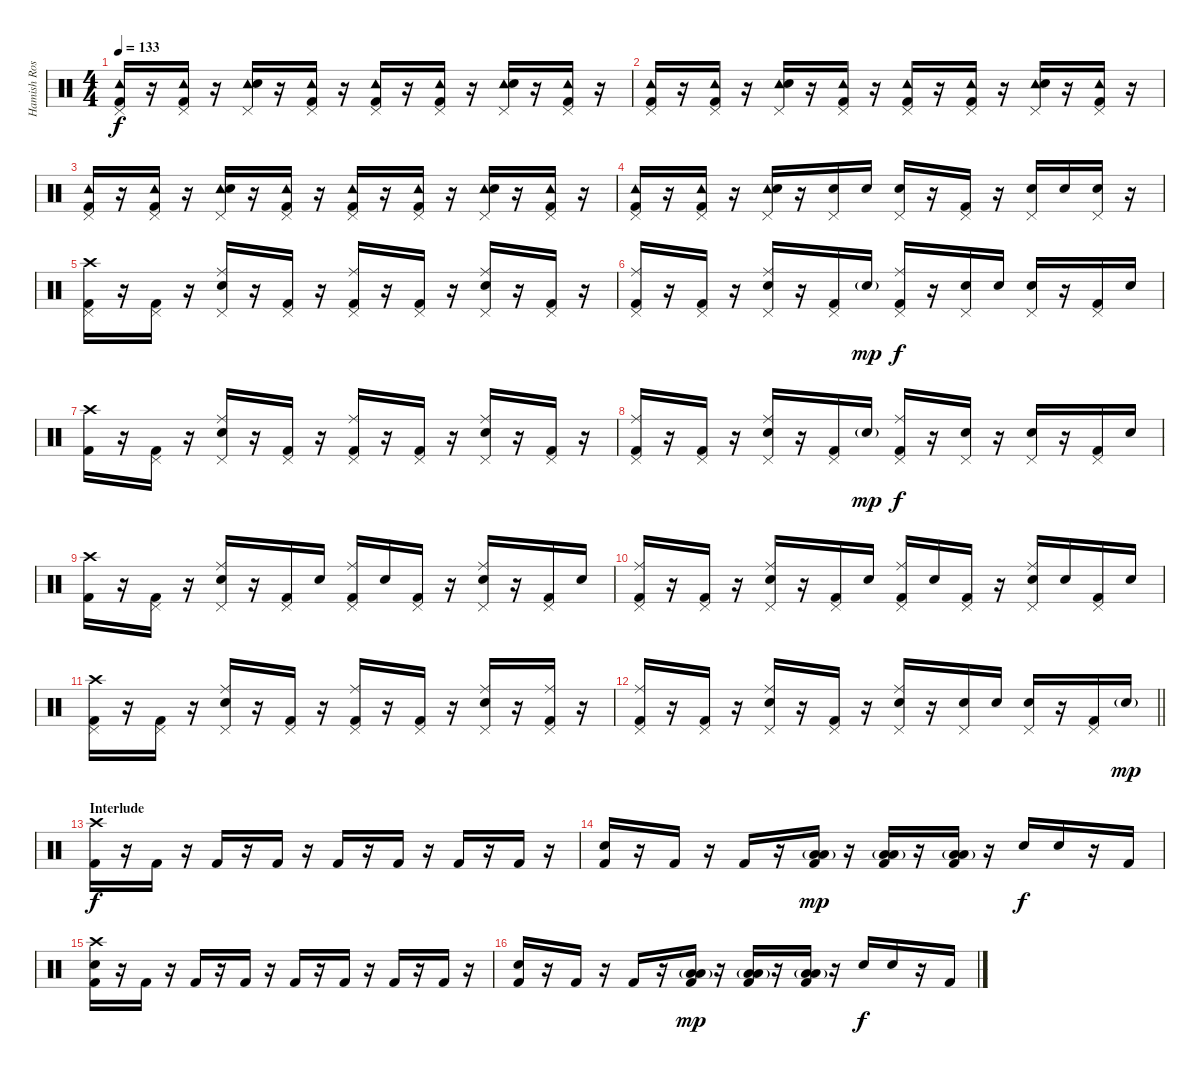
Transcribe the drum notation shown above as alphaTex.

\track ("Hamish Rosser (Main-Tune Drums Track)" "Hamish Ros") {instrument percussion}
\staff {score}
\articulation defaults
\ts (4 4)
\tempo 133
\clef neutral
\ks c
("Tambourine (hit)" "Pedal Hi-Hat (hit)" "Kick (hit) 2").16{dy f} r.16 ("Tambourine (hit)" "Pedal Hi-Hat (hit)" "Kick (hit) 2").16 r.16 ("Tambourine (hit)" "Pedal Hi-Hat (hit)" "Snare (hit) 2").16 r.16 ("Tambourine (hit)" "Pedal Hi-Hat (hit)" "Kick (hit) 2").16 r.16 ("Tambourine (hit)" "Pedal Hi-Hat (hit)" "Kick (hit) 2").16 r.16 ("Tambourine (hit)" "Pedal Hi-Hat (hit)" "Kick (hit) 2").16 r.16 ("Tambourine (hit)" "Pedal Hi-Hat (hit)" "Snare (hit) 2").16 r.16 ("Tambourine (hit)" "Pedal Hi-Hat (hit)" "Kick (hit) 2").16 r.16 |
("Tambourine (hit)" "Pedal Hi-Hat (hit)" "Kick (hit) 2").16 r.16 ("Tambourine (hit)" "Pedal Hi-Hat (hit)" "Kick (hit) 2").16 r.16 ("Tambourine (hit)" "Pedal Hi-Hat (hit)" "Snare (hit) 2").16 r.16 ("Tambourine (hit)" "Pedal Hi-Hat (hit)" "Kick (hit) 2").16 r.16 ("Tambourine (hit)" "Pedal Hi-Hat (hit)" "Kick (hit) 2").16 r.16 ("Tambourine (hit)" "Pedal Hi-Hat (hit)" "Kick (hit) 2").16 r.16 ("Tambourine (hit)" "Pedal Hi-Hat (hit)" "Snare (hit) 2").16 r.16 ("Tambourine (hit)" "Pedal Hi-Hat (hit)" "Kick (hit) 2").16 r.16 |
("Tambourine (hit)" "Pedal Hi-Hat (hit)" "Kick (hit) 2").16 r.16 ("Tambourine (hit)" "Pedal Hi-Hat (hit)" "Kick (hit) 2").16 r.16 ("Tambourine (hit)" "Pedal Hi-Hat (hit)" "Snare (hit) 2").16 r.16 ("Tambourine (hit)" "Pedal Hi-Hat (hit)" "Kick (hit) 2").16 r.16 ("Tambourine (hit)" "Pedal Hi-Hat (hit)" "Kick (hit) 2").16 r.16 ("Tambourine (hit)" "Pedal Hi-Hat (hit)" "Kick (hit) 2").16 r.16 ("Tambourine (hit)" "Pedal Hi-Hat (hit)" "Snare (hit) 2").16 r.16 ("Tambourine (hit)" "Pedal Hi-Hat (hit)" "Kick (hit) 2").16 r.16 |
("Tambourine (hit)" "Pedal Hi-Hat (hit)" "Kick (hit) 2").16 r.16 ("Tambourine (hit)" "Pedal Hi-Hat (hit)" "Kick (hit) 2").16 r.16 ("Tambourine (hit)" "Pedal Hi-Hat (hit)" "Snare (hit) 2").16 r.16 ("Pedal Hi-Hat (hit)" "Snare (hit) 2").16 "Snare (hit) 2".16 ("Pedal Hi-Hat (hit)" "Snare (hit) 2").16 r.16 ("Pedal Hi-Hat (hit)" "Kick (hit) 2").16 r.16 ("Pedal Hi-Hat (hit)" "Snare (hit) 2").16 "Snare (hit) 2".16 ("Pedal Hi-Hat (hit)" "Snare (hit) 2").16 r.16 |
("Crash high (hit)" "Pedal Hi-Hat (hit)" "Kick (hit) 2").16 r.16 ("Pedal Hi-Hat (hit)" "Kick (hit) 2").16 r.16 ("Ride (middle)" "Pedal Hi-Hat (hit)" "Snare (hit) 2").16 r.16 ("Pedal Hi-Hat (hit)" "Kick (hit) 2").16 r.16 ("Ride (middle)" "Pedal Hi-Hat (hit)" "Kick (hit) 2").16 r.16 ("Pedal Hi-Hat (hit)" "Kick (hit) 2").16 r.16 ("Ride (middle)" "Pedal Hi-Hat (hit)" "Snare (hit) 2").16 r.16 ("Pedal Hi-Hat (hit)" "Kick (hit) 2").16 r.16 |
("Ride (middle)" "Pedal Hi-Hat (hit)" "Kick (hit) 2").16 r.16 ("Pedal Hi-Hat (hit)" "Kick (hit) 2").16 r.16 ("Ride (middle)" "Pedal Hi-Hat (hit)" "Snare (hit) 2").16 r.16 ("Pedal Hi-Hat (hit)" "Kick (hit) 2").16 "Snare (hit) 2"{g}.16{dy mp} ("Ride (middle)" "Pedal Hi-Hat (hit)" "Kick (hit) 2").16{dy f} r.16 ("Pedal Hi-Hat (hit)" "Snare (hit) 2").16 "Snare (hit) 2".16 ("Pedal Hi-Hat (hit)" "Snare (hit) 2").16 r.16 ("Pedal Hi-Hat (hit)" "Kick (hit) 2").16 "Snare (hit) 2".16 |
("Crash high (hit)" "Kick (hit) 2").16 r.16 ("Pedal Hi-Hat (hit)" "Kick (hit) 2").16 r.16 ("Ride (middle)" "Pedal Hi-Hat (hit)" "Snare (hit) 2").16 r.16 ("Pedal Hi-Hat (hit)" "Kick (hit) 2").16 r.16 ("Ride (middle)" "Pedal Hi-Hat (hit)" "Kick (hit) 2").16 r.16 ("Pedal Hi-Hat (hit)" "Kick (hit) 2").16 r.16 ("Ride (middle)" "Pedal Hi-Hat (hit)" "Snare (hit) 2").16 r.16 ("Pedal Hi-Hat (hit)" "Kick (hit) 2").16 r.16 |
("Ride (middle)" "Pedal Hi-Hat (hit)" "Kick (hit) 2").16 r.16 ("Pedal Hi-Hat (hit)" "Kick (hit) 2").16 r.16 ("Ride (middle)" "Pedal Hi-Hat (hit)" "Snare (hit) 2").16 r.16 ("Pedal Hi-Hat (hit)" "Kick (hit) 2").16 "Snare (hit) 2"{g}.16{dy mp} ("Ride (middle)" "Pedal Hi-Hat (hit)" "Kick (hit) 2").16{dy f} r.16 ("Pedal Hi-Hat (hit)" "Snare (hit) 2").16 r.16 ("Pedal Hi-Hat (hit)" "Snare (hit) 2").16 r.16 ("Pedal Hi-Hat (hit)" "Kick (hit) 2").16 "Snare (hit) 2".16 |
("Crash high (hit)" "Kick (hit) 2").16 r.16 ("Pedal Hi-Hat (hit)" "Kick (hit) 2").16 r.16 ("Ride (middle)" "Pedal Hi-Hat (hit)" "Snare (hit) 2").16 r.16 ("Pedal Hi-Hat (hit)" "Kick (hit) 2").16 "Snare (hit) 2".16 ("Ride (middle)" "Pedal Hi-Hat (hit)" "Kick (hit) 2").16 "Snare (hit) 2".16 ("Pedal Hi-Hat (hit)" "Kick (hit) 2").16 r.16 ("Ride (middle)" "Pedal Hi-Hat (hit)" "Snare (hit) 2").16 r.16 ("Pedal Hi-Hat (hit)" "Kick (hit) 2").16 "Snare (hit) 2".16 |
("Ride (middle)" "Pedal Hi-Hat (hit)" "Kick (hit) 2").16 r.16 ("Pedal Hi-Hat (hit)" "Kick (hit) 2").16 r.16 ("Ride (middle)" "Pedal Hi-Hat (hit)" "Snare (hit) 2").16 r.16 ("Pedal Hi-Hat (hit)" "Kick (hit) 2").16 "Snare (hit) 2".16 ("Ride (middle)" "Pedal Hi-Hat (hit)" "Kick (hit) 2").16 "Snare (hit) 2".16 ("Pedal Hi-Hat (hit)" "Kick (hit) 2").16 r.16 ("Ride (middle)" "Pedal Hi-Hat (hit)" "Snare (hit) 2").16 "Snare (hit) 2".16 ("Pedal Hi-Hat (hit)" "Kick (hit) 2").16 "Snare (hit) 2".16 |
("Crash high (hit)" "Pedal Hi-Hat (hit)" "Kick (hit) 2").16 r.16 ("Pedal Hi-Hat (hit)" "Kick (hit) 2").16 r.16 ("Ride (middle)" "Pedal Hi-Hat (hit)" "Snare (hit) 2").16 r.16 ("Pedal Hi-Hat (hit)" "Kick (hit) 2").16 r.16 ("Ride (middle)" "Pedal Hi-Hat (hit)" "Kick (hit) 2").16 r.16 ("Pedal Hi-Hat (hit)" "Kick (hit) 2").16 r.16 ("Ride (middle)" "Pedal Hi-Hat (hit)" "Snare (hit) 2").16 r.16 ("Ride (middle)" "Pedal Hi-Hat (hit)" "Kick (hit) 2").16 r.16 |
\barLineRight lightlight
("Ride (middle)" "Pedal Hi-Hat (hit)" "Kick (hit) 2").16 r.16 ("Pedal Hi-Hat (hit)" "Kick (hit) 2").16 r.16 ("Ride (middle)" "Pedal Hi-Hat (hit)" "Snare (hit) 2").16 r.16 ("Pedal Hi-Hat (hit)" "Kick (hit) 2").16 r.16 ("Ride (middle)" "Pedal Hi-Hat (hit)" "Snare (hit) 2").16 r.16 ("Pedal Hi-Hat (hit)" "Snare (hit) 2").16 "Snare (hit) 2".16 ("Pedal Hi-Hat (hit)" "Snare (hit) 2").16 r.16 ("Pedal Hi-Hat (hit)" "Kick (hit) 2").16 "Snare (hit) 2"{g}.16{dy mp} |
\section ("" "Interlude")
("Crash high (hit)" "Kick (hit) 2").16{dy f} r.16 "Kick (hit) 2".16 r.16 "Kick (hit) 2".16 r.16 "Kick (hit) 2".16 r.16 "Kick (hit) 2".16 r.16 "Kick (hit) 2".16 r.16 "Kick (hit) 2".16 r.16 "Kick (hit) 2".16 r.16 |
("Snare (hit) 2" "Kick (hit) 2").16 r.16 "Kick (hit) 2".16 r.16 "Kick (hit) 2".16 r.16 ("Low Tom (hit)"{g} "Low Tom (hit)"{g} "Kick (hit) 2").16{bd 60 dy mp} r.16 ("Low Tom (hit)"{g} "Low Tom (hit)"{g} "Kick (hit) 2").16{bd 60} r.16 ("Low Tom (hit)"{g} "Low Tom (hit)"{g} "Kick (hit) 2").16{bd 60} r.16 "Snare (hit) 2".16{dy f} "Snare (hit) 2".16 r.16 "Kick (hit) 2".16 |
("Crash high (hit)" "Snare (hit) 2" "Kick (hit) 2").16 r.16 "Kick (hit) 2".16 r.16 "Kick (hit) 2".16 r.16 "Kick (hit) 2".16 r.16 "Kick (hit) 2".16 r.16 "Kick (hit) 2".16 r.16 "Kick (hit) 2".16 r.16 "Kick (hit) 2".16 r.16 |
("Snare (hit) 2" "Kick (hit) 2").16 r.16 "Kick (hit) 2".16 r.16 "Kick (hit) 2".16 r.16 ("Low Tom (hit)"{g} "Low Tom (hit)"{g} "Kick (hit) 2").16{bd 60 dy mp} r.16 ("Low Tom (hit)"{g} "Low Tom (hit)"{g} "Kick (hit) 2").16{bd 60} r.16 ("Low Tom (hit)"{g} "Low Tom (hit)"{g} "Kick (hit) 2").16{bd 60} r.16 "Snare (hit) 2".16{dy f} "Snare (hit) 2".16 r.16 "Kick (hit) 2".16
